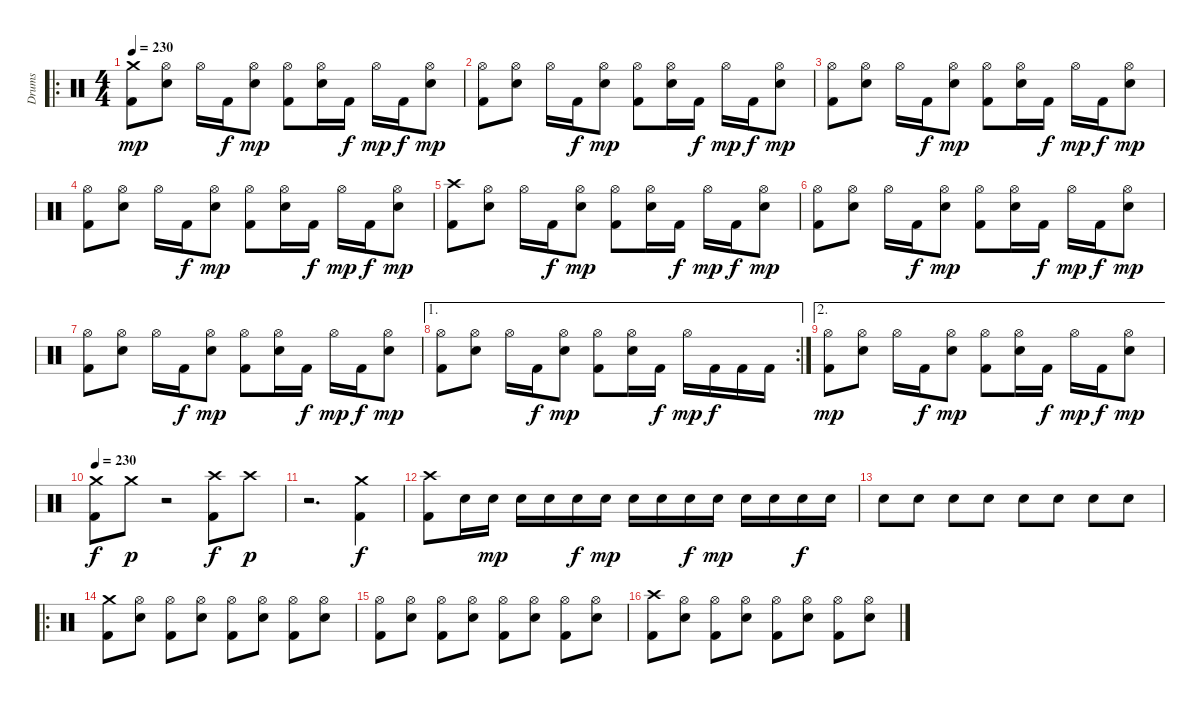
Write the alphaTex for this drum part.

\track ("Drums" "Drums") {instrument percussion}
\staff {score}
\articulation defaults
\ro
\ts (4 4)
\tempo 230
\tempo 190
\tempo 230
\clef neutral
\ks c
("Crash medium (hit)" "Kick (hit) 2").8{dy mp} ("Hi-Hat (open)" "Snare (hit) 2").8 "Hi-Hat (open)".16 "Kick (hit) 2".16{dy f} ("Hi-Hat (open)" "Snare (hit) 2").8{dy mp} ("Hi-Hat (open)" "Kick (hit) 2").8 ("Hi-Hat (open)" "Snare (hit) 2").16 "Kick (hit) 2".16{dy f} "Hi-Hat (open)".16{dy mp} "Kick (hit) 2".16{dy f} ("Hi-Hat (open)" "Snare (hit) 2").8{dy mp} |
("Hi-Hat (open)" "Kick (hit) 2").8 ("Hi-Hat (open)" "Snare (hit) 2").8 "Hi-Hat (open)".16 "Kick (hit) 2".16{dy f} ("Hi-Hat (open)" "Snare (hit) 2").8{dy mp} ("Hi-Hat (open)" "Kick (hit) 2").8 ("Hi-Hat (open)" "Snare (hit) 2").16 "Kick (hit) 2".16{dy f} "Hi-Hat (open)".16{dy mp} "Kick (hit) 2".16{dy f} ("Hi-Hat (open)" "Snare (hit) 2").8{dy mp} |
("Hi-Hat (open)" "Kick (hit) 2").8 ("Hi-Hat (open)" "Snare (hit) 2").8 "Hi-Hat (open)".16 "Kick (hit) 2".16{dy f} ("Hi-Hat (open)" "Snare (hit) 2").8{dy mp} ("Hi-Hat (open)" "Kick (hit) 2").8 ("Hi-Hat (open)" "Snare (hit) 2").16 "Kick (hit) 2".16{dy f} "Hi-Hat (open)".16{dy mp} "Kick (hit) 2".16{dy f} ("Hi-Hat (open)" "Snare (hit) 2").8{dy mp} |
("Hi-Hat (open)" "Kick (hit) 2").8 ("Hi-Hat (open)" "Snare (hit) 2").8 "Hi-Hat (open)".16 "Kick (hit) 2".16{dy f} ("Hi-Hat (open)" "Snare (hit) 2").8{dy mp} ("Hi-Hat (open)" "Kick (hit) 2").8 ("Hi-Hat (open)" "Snare (hit) 2").16 "Kick (hit) 2".16{dy f} "Hi-Hat (open)".16{dy mp} "Kick (hit) 2".16{dy f} ("Hi-Hat (open)" "Snare (hit) 2").8{dy mp} |
("Crash high (hit)" "Kick (hit) 2").8 ("Hi-Hat (open)" "Snare (hit) 2").8 "Hi-Hat (open)".16 "Kick (hit) 2".16{dy f} ("Hi-Hat (open)" "Snare (hit) 2").8{dy mp} ("Hi-Hat (open)" "Kick (hit) 2").8 ("Hi-Hat (open)" "Snare (hit) 2").16 "Kick (hit) 2".16{dy f} "Hi-Hat (open)".16{dy mp} "Kick (hit) 2".16{dy f} ("Hi-Hat (open)" "Snare (hit) 2").8{dy mp} |
("Hi-Hat (open)" "Kick (hit) 2").8 ("Hi-Hat (open)" "Snare (hit) 2").8 "Hi-Hat (open)".16 "Kick (hit) 2".16{dy f} ("Hi-Hat (open)" "Snare (hit) 2").8{dy mp} ("Hi-Hat (open)" "Kick (hit) 2").8 ("Hi-Hat (open)" "Snare (hit) 2").16 "Kick (hit) 2".16{dy f} "Hi-Hat (open)".16{dy mp} "Kick (hit) 2".16{dy f} ("Hi-Hat (open)" "Snare (hit) 2").8{dy mp} |
("Hi-Hat (open)" "Kick (hit) 2").8 ("Hi-Hat (open)" "Snare (hit) 2").8 "Hi-Hat (open)".16 "Kick (hit) 2".16{dy f} ("Hi-Hat (open)" "Snare (hit) 2").8{dy mp} ("Hi-Hat (open)" "Kick (hit) 2").8 ("Hi-Hat (open)" "Snare (hit) 2").16 "Kick (hit) 2".16{dy f} "Hi-Hat (open)".16{dy mp} "Kick (hit) 2".16{dy f} ("Hi-Hat (open)" "Snare (hit) 2").8{dy mp} |
\ae 1
\rc 2
("Hi-Hat (open)" "Kick (hit) 2").8 ("Hi-Hat (open)" "Snare (hit) 2").8 "Hi-Hat (open)".16 "Kick (hit) 2".16{dy f} ("Hi-Hat (open)" "Snare (hit) 2").8{dy mp} ("Hi-Hat (open)" "Kick (hit) 2").8 ("Hi-Hat (open)" "Snare (hit) 2").16 "Kick (hit) 2".16{dy f} "Hi-Hat (open)".16{dy mp} "Kick (hit) 2".16{dy f} "Kick (hit) 2".16 "Kick (hit) 2".16 |
\ae 2
("Hi-Hat (open)" "Kick (hit) 2").8{dy mp} ("Hi-Hat (open)" "Snare (hit) 2").8 "Hi-Hat (open)".16 "Kick (hit) 2".16{dy f} ("Hi-Hat (open)" "Snare (hit) 2").8{dy mp} ("Hi-Hat (open)" "Kick (hit) 2").8 ("Hi-Hat (open)" "Snare (hit) 2").16 "Kick (hit) 2".16{dy f} "Hi-Hat (open)".16{dy mp} "Kick (hit) 2".16{dy f} ("Hi-Hat (open)" "Snare (hit) 2").8{dy mp} |
\tempo 230
("Crash medium (hit)" "Kick (hit) 2").8{dy f} "Crash medium (hit)".8{dy p} r.2 ("Crash high (hit)" "Kick (hit) 2").8{dy f} "Crash high (hit)".8{dy p} |
r.2{d} ("Crash medium (hit)" "Kick (hit) 2").4{dy f} |
("Crash high (hit)" "Kick (hit) 2").8 "Snare (hit) 2".16 "Snare (hit) 2".16{dy mp} "Snare (hit) 2".16 "Snare (hit) 2".16 "Snare (hit) 2".16{dy f} "Snare (hit) 2".16{dy mp} "Snare (hit) 2".16 "Snare (hit) 2".16 "Snare (hit) 2".16{dy f} "Snare (hit) 2".16{dy mp} "Snare (hit) 2".16 "Snare (hit) 2".16 "Snare (hit) 2".16{dy f} "Snare (hit) 2".16 |
"Snare (hit) 2".8 "Snare (hit) 2".8 "Snare (hit) 2".8 "Snare (hit) 2".8 "Snare (hit) 2".8 "Snare (hit) 2".8 "Snare (hit) 2".8 "Snare (hit) 2".8 |
\ro
("Crash medium (hit)" "Kick (hit) 2").8 ("Hi-Hat (open)" "Snare (hit) 2").8 ("Hi-Hat (open)" "Kick (hit) 2").8 ("Hi-Hat (open)" "Snare (hit) 2").8 ("Hi-Hat (open)" "Kick (hit) 2").8 ("Hi-Hat (open)" "Snare (hit) 2").8 ("Hi-Hat (open)" "Kick (hit) 2").8 ("Hi-Hat (open)" "Snare (hit) 2").8 |
("Hi-Hat (open)" "Kick (hit) 2").8 ("Hi-Hat (open)" "Snare (hit) 2").8 ("Hi-Hat (open)" "Kick (hit) 2").8 ("Hi-Hat (open)" "Snare (hit) 2").8 ("Hi-Hat (open)" "Kick (hit) 2").8 ("Hi-Hat (open)" "Snare (hit) 2").8 ("Hi-Hat (open)" "Kick (hit) 2").8 ("Hi-Hat (open)" "Snare (hit) 2").8 |
("Crash high (hit)" "Kick (hit) 2").8 ("Hi-Hat (open)" "Snare (hit) 2").8 ("Hi-Hat (open)" "Kick (hit) 2").8 ("Hi-Hat (open)" "Snare (hit) 2").8 ("Hi-Hat (open)" "Kick (hit) 2").8 ("Hi-Hat (open)" "Snare (hit) 2").8 ("Hi-Hat (open)" "Kick (hit) 2").8 ("Hi-Hat (open)" "Snare (hit) 2").8
